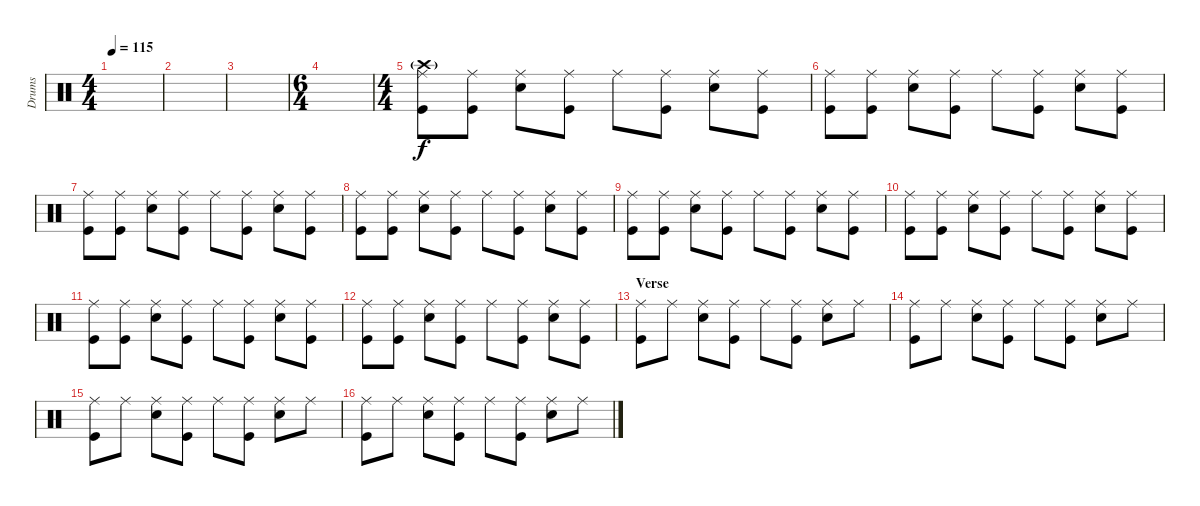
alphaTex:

\track ("Drums" "Drums") {instrument percussion}
\staff {score}
\articulation defaults
\ts (4 4)
\tempo 115
\clef neutral
\ks c
|
|
|
\ts (6 4)
|
\ts (4 4)
\section ("" "")
("Ride (middle)" "Crash high (hit)"{g} "Kick (hit)").8 ("Ride (middle)" "Kick (hit)").8{dy f} ("Ride (middle)" "Snare (hit) 2").8 ("Ride (middle)" "Kick (hit)").8 "Ride (middle)".8 ("Ride (middle)" "Kick (hit)").8 ("Ride (middle)" "Snare (hit) 2").8 ("Ride (middle)" "Kick (hit)").8 |
("Ride (middle)" "Kick (hit)").8 ("Ride (middle)" "Kick (hit)").8 ("Ride (middle)" "Snare (hit) 2").8 ("Ride (middle)" "Kick (hit)").8 "Ride (middle)".8 ("Ride (middle)" "Kick (hit)").8 ("Ride (middle)" "Snare (hit) 2").8 ("Ride (middle)" "Kick (hit)").8 |
("Ride (middle)" "Kick (hit)").8 ("Ride (middle)" "Kick (hit)").8 ("Ride (middle)" "Snare (hit) 2").8 ("Ride (middle)" "Kick (hit)").8 "Ride (middle)".8 ("Ride (middle)" "Kick (hit)").8 ("Ride (middle)" "Snare (hit) 2").8 ("Ride (middle)" "Kick (hit)").8 |
("Ride (middle)" "Kick (hit)").8 ("Ride (middle)" "Kick (hit)").8 ("Ride (middle)" "Snare (hit) 2").8 ("Ride (middle)" "Kick (hit)").8 "Ride (middle)".8 ("Ride (middle)" "Kick (hit)").8 ("Ride (middle)" "Snare (hit) 2").8 ("Ride (middle)" "Kick (hit)").8 |
("Ride (middle)" "Kick (hit)").8 ("Ride (middle)" "Kick (hit)").8 ("Ride (middle)" "Snare (hit) 2").8 ("Ride (middle)" "Kick (hit)").8 "Ride (middle)".8 ("Ride (middle)" "Kick (hit)").8 ("Ride (middle)" "Snare (hit) 2").8 ("Ride (middle)" "Kick (hit)").8 |
("Ride (middle)" "Kick (hit)").8 ("Ride (middle)" "Kick (hit)").8 ("Ride (middle)" "Snare (hit) 2").8 ("Ride (middle)" "Kick (hit)").8 "Ride (middle)".8 ("Ride (middle)" "Kick (hit)").8 ("Ride (middle)" "Snare (hit) 2").8 ("Ride (middle)" "Kick (hit)").8 |
("Ride (middle)" "Kick (hit)").8 ("Ride (middle)" "Kick (hit)").8 ("Ride (middle)" "Snare (hit) 2").8 ("Ride (middle)" "Kick (hit)").8 "Ride (middle)".8 ("Ride (middle)" "Kick (hit)").8 ("Ride (middle)" "Snare (hit) 2").8 ("Ride (middle)" "Kick (hit)").8 |
("Ride (middle)" "Kick (hit)").8 ("Ride (middle)" "Kick (hit)").8 ("Ride (middle)" "Snare (hit) 2").8 ("Ride (middle)" "Kick (hit)").8 "Ride (middle)".8 ("Ride (middle)" "Kick (hit)").8 ("Ride (middle)" "Snare (hit) 2").8 ("Ride (middle)" "Kick (hit)").8 |
\section ("" "Verse")
("Ride (middle)" "Kick (hit)").8 "Ride (middle)".8 ("Ride (middle)" "Snare (hit) 2").8 ("Ride (middle)" "Kick (hit)").8 "Ride (middle)".8 ("Ride (middle)" "Kick (hit)").8 ("Ride (middle)" "Snare (hit) 2").8 "Ride (middle)".8 |
("Ride (middle)" "Kick (hit)").8 "Ride (middle)".8 ("Ride (middle)" "Snare (hit) 2").8 ("Ride (middle)" "Kick (hit)").8 "Ride (middle)".8 ("Ride (middle)" "Kick (hit)").8 ("Ride (middle)" "Snare (hit) 2").8 "Ride (middle)".8 |
("Ride (middle)" "Kick (hit)").8 "Ride (middle)".8 ("Ride (middle)" "Snare (hit) 2").8 ("Ride (middle)" "Kick (hit)").8 "Ride (middle)".8 ("Ride (middle)" "Kick (hit)").8 ("Ride (middle)" "Snare (hit) 2").8 "Ride (middle)".8 |
("Ride (middle)" "Kick (hit)").8 "Ride (middle)".8 ("Ride (middle)" "Snare (hit) 2").8 ("Ride (middle)" "Kick (hit)").8 "Ride (middle)".8 ("Ride (middle)" "Kick (hit)").8 ("Ride (middle)" "Snare (hit) 2").8 "Ride (middle)".8
